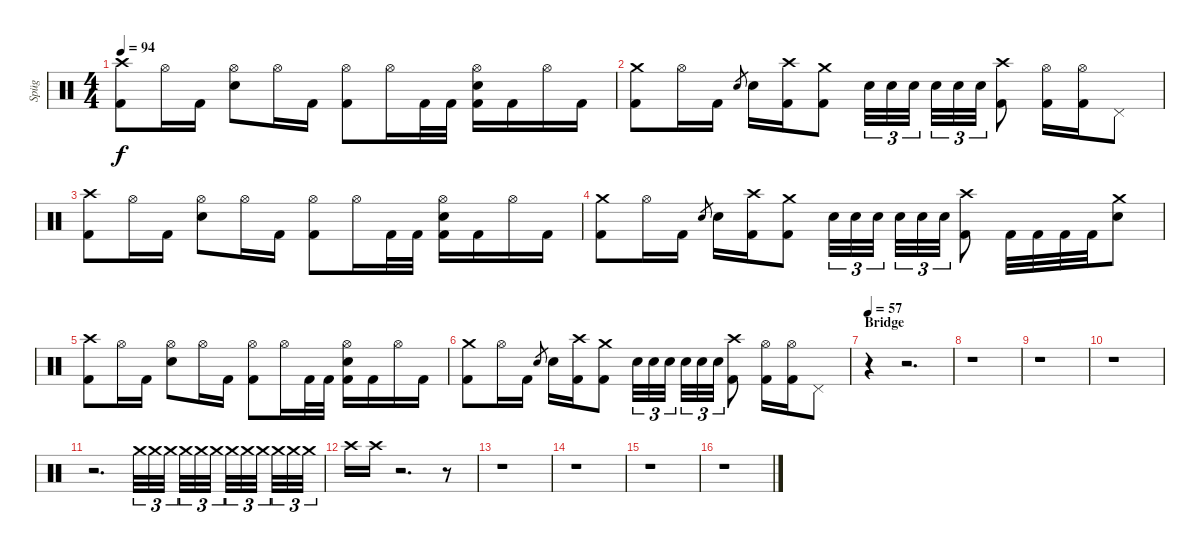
\track ("Spüg" "Spüg") {instrument percussion}
\staff {score}
\articulation defaults
\ts (4 4)
\tempo 94
\clef neutral
\ks c
("Crash high (hit)" "Kick (hit) 2").8{dy f} "Hi-Hat (open)".16 "Kick (hit) 2".16 ("Hi-Hat (open)" "Electric Snare (hit)").8 "Hi-Hat (open)".16 "Kick (hit) 2".16 ("Hi-Hat (open)" "Kick (hit) 2").8 "Hi-Hat (open)".16 "Kick (hit) 2".32 "Kick (hit) 2".32 ("Hi-Hat (open)" "Electric Snare (hit)" "Kick (hit) 2").16 "Kick (hit) 2".16 "Hi-Hat (open)".16 "Kick (hit) 2".16 |
("Crash medium (hit)" "Kick (hit) 2").8 "Hi-Hat (open)".16 "Kick (hit) 2".16 "Electric Snare (hit)".8{gr} "Electric Snare (hit)".16 ("Crash high (hit)" "Kick (hit) 2").16 ("Crash medium (hit)" "Kick (hit) 2").8 "Electric Snare (hit)".32{tu (3 2)} "Electric Snare (hit)".32{tu (3 2)} "Electric Snare (hit)".32{tu (3 2)} "Electric Snare (hit)".32{tu (3 2)} "Electric Snare (hit)".32{tu (3 2)} "Electric Snare (hit)".32{tu (3 2)} ("Crash high (hit)" "Kick (hit) 2").8 ("Hi-Hat (open)" "Kick (hit) 2").16 ("Hi-Hat (open)" "Kick (hit) 2").16 "Pedal Hi-Hat (hit)".8 |
("Crash high (hit)" "Kick (hit) 2").8 "Hi-Hat (open)".16 "Kick (hit) 2".16 ("Hi-Hat (open)" "Electric Snare (hit)").8 "Hi-Hat (open)".16 "Kick (hit) 2".16 ("Hi-Hat (open)" "Kick (hit) 2").8 "Hi-Hat (open)".16 "Kick (hit) 2".32 "Kick (hit) 2".32 ("Hi-Hat (open)" "Electric Snare (hit)" "Kick (hit) 2").16 "Kick (hit) 2".16 "Hi-Hat (open)".16 "Kick (hit) 2".16 |
("Crash medium (hit)" "Kick (hit) 2").8 "Hi-Hat (open)".16 "Kick (hit) 2".16 "Electric Snare (hit)".8{gr} "Electric Snare (hit)".16 ("Crash high (hit)" "Kick (hit) 2").16 ("Crash medium (hit)" "Kick (hit) 2").8 "Electric Snare (hit)".32{tu (3 2)} "Electric Snare (hit)".32{tu (3 2)} "Electric Snare (hit)".32{tu (3 2)} "Electric Snare (hit)".32{tu (3 2)} "Electric Snare (hit)".32{tu (3 2)} "Electric Snare (hit)".32{tu (3 2)} ("Crash high (hit)" "Kick (hit) 2").8 "Kick (hit) 2".32 "Kick (hit) 2".32 "Kick (hit) 2".32 "Kick (hit) 2".32 ("Crash medium (hit)" "Electric Snare (hit)").8 |
("Crash high (hit)" "Kick (hit) 2").8 "Hi-Hat (open)".16 "Kick (hit) 2".16 ("Hi-Hat (open)" "Electric Snare (hit)").8 "Hi-Hat (open)".16 "Kick (hit) 2".16 ("Hi-Hat (open)" "Kick (hit) 2").8 "Hi-Hat (open)".16 "Kick (hit) 2".32 "Kick (hit) 2".32 ("Hi-Hat (open)" "Electric Snare (hit)" "Kick (hit) 2").16 "Kick (hit) 2".16 "Hi-Hat (open)".16 "Kick (hit) 2".16 |
("Crash medium (hit)" "Kick (hit) 2").8 "Hi-Hat (open)".16 "Kick (hit) 2".16 "Electric Snare (hit)".8{gr} "Electric Snare (hit)".16 ("Crash high (hit)" "Kick (hit) 2").16 ("Crash medium (hit)" "Kick (hit) 2").8 "Electric Snare (hit)".32{tu (3 2)} "Electric Snare (hit)".32{tu (3 2)} "Electric Snare (hit)".32{tu (3 2)} "Electric Snare (hit)".32{tu (3 2)} "Electric Snare (hit)".32{tu (3 2)} "Electric Snare (hit)".32{tu (3 2)} ("Crash high (hit)" "Kick (hit) 2").8 ("Hi-Hat (open)" "Kick (hit) 2").16 ("Hi-Hat (open)" "Kick (hit) 2").16 "Pedal Hi-Hat (hit)".8 |
\section ("" "Bridge")
\tempo 57
r.4 r.2{d} |
r.1 |
r.1 |
r.1 |
r.2{d} "Crash medium (hit)".32{tu (3 2)} "Crash medium (hit)".32{tu (3 2)} "Crash medium (hit)".32{tu (3 2)} "Crash medium (hit)".32{tu (3 2)} "Crash medium (hit)".32{tu (3 2)} "Crash medium (hit)".32{tu (3 2)} "Crash medium (hit)".32{tu (3 2)} "Crash medium (hit)".32{tu (3 2)} "Crash medium (hit)".32{tu (3 2)} "Crash medium (hit)".32{tu (3 2)} "Crash medium (hit)".32{tu (3 2)} "Crash medium (hit)".32{tu (3 2)} |
"Crash high (hit)".16 "Crash high (hit)".16 r.2{d} r.8 |
r.1{volume 14} |
r.1 |
r.1 |
r.1
